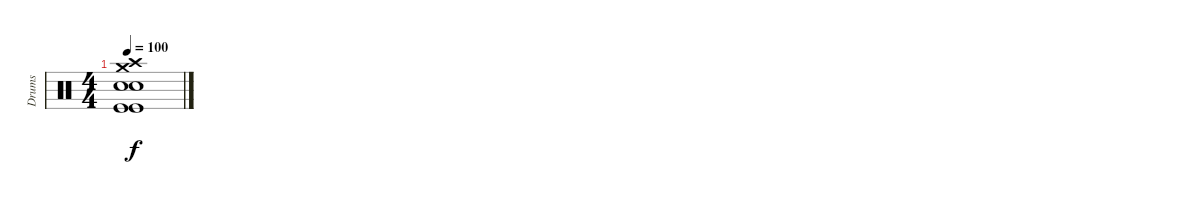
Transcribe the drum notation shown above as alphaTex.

\track ("Drums" "Drums") {instrument percussion}
\staff {score}
\articulation defaults
\ts (4 4)
\tempo 100
\clef neutral
\ks c
("Crash medium (hit)" "Crash high (hit)" "Snare (hit) 2" "Snare (hit) 2" "Kick (hit)" "Kick (hit)").1{dy f volume 0}
